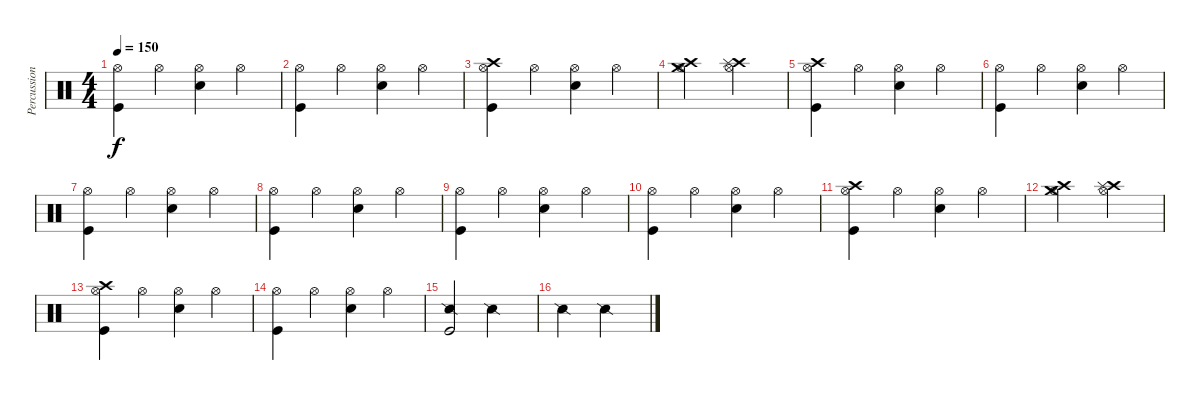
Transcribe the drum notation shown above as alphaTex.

\track ("Percussion" "Percussion") {instrument percussion}
\staff {score}
\articulation defaults
\ts (4 4)
\tempo 150
\clef neutral
\ks c
("Hi-Hat (open)" "Kick (hit)").4{dy f} "Hi-Hat (open)".4 ("Hi-Hat (open)" "Snare (hit) 2").4 "Hi-Hat (open)".4 |
("Hi-Hat (open)" "Kick (hit)").4 "Hi-Hat (open)".4 ("Hi-Hat (open)" "Snare (hit) 2").4 "Hi-Hat (open)".4 |
("Hi-Hat (open)" "Crash high (hit)" "Kick (hit)").4 "Hi-Hat (open)".4 ("Hi-Hat (open)" "Snare (hit) 2").4 "Hi-Hat (open)".4 |
("Crash high (hit)" "Crash medium (hit)" "Hi-Hat (open)").2{balance 12} ("Crash high (hit)" "Splash (hit)" "Hi-Hat (open)").2{balance 4} |
("Hi-Hat (open)" "Crash high (hit)" "Kick (hit)").4{balance 8} "Hi-Hat (open)".4 ("Hi-Hat (open)" "Snare (hit) 2").4 "Hi-Hat (open)".4 |
("Hi-Hat (open)" "Kick (hit)").4 "Hi-Hat (open)".4 ("Hi-Hat (open)" "Snare (hit) 2").4 "Hi-Hat (open)".4 |
("Hi-Hat (open)" "Kick (hit)").4 "Hi-Hat (open)".4 ("Hi-Hat (open)" "Snare (hit) 2").4 "Hi-Hat (open)".4 |
("Hi-Hat (open)" "Kick (hit)").4 "Hi-Hat (open)".4 ("Hi-Hat (open)" "Snare (hit) 2").4 "Hi-Hat (open)".4 |
("Hi-Hat (open)" "Kick (hit)").4 "Hi-Hat (open)".4 ("Hi-Hat (open)" "Snare (hit) 2").4 "Hi-Hat (open)".4 |
("Hi-Hat (open)" "Kick (hit)").4 "Hi-Hat (open)".4 ("Hi-Hat (open)" "Snare (hit) 2").4 "Hi-Hat (open)".4 |
("Hi-Hat (open)" "Crash high (hit)" "Kick (hit)").4 "Hi-Hat (open)".4 ("Hi-Hat (open)" "Snare (hit) 2").4 "Hi-Hat (open)".4 |
("Crash high (hit)" "Crash medium (hit)" "Hi-Hat (open)").2 ("Crash high (hit)" "Splash (hit)" "Hi-Hat (open)").2 |
("Hi-Hat (open)" "Crash high (hit)" "Kick (hit)").4 "Hi-Hat (open)".4 ("Hi-Hat (open)" "Snare (hit) 2").4 "Hi-Hat (open)".4 |
("Hi-Hat (open)" "Kick (hit)").4 "Hi-Hat (open)".4 ("Hi-Hat (open)" "Snare (hit) 2").4 "Hi-Hat (open)".4 |
("Snare (side stick) 2" "Kick (hit)").2 "Snare (side stick) 2".2 |
"Snare (side stick) 2".2 "Snare (side stick) 2".2
